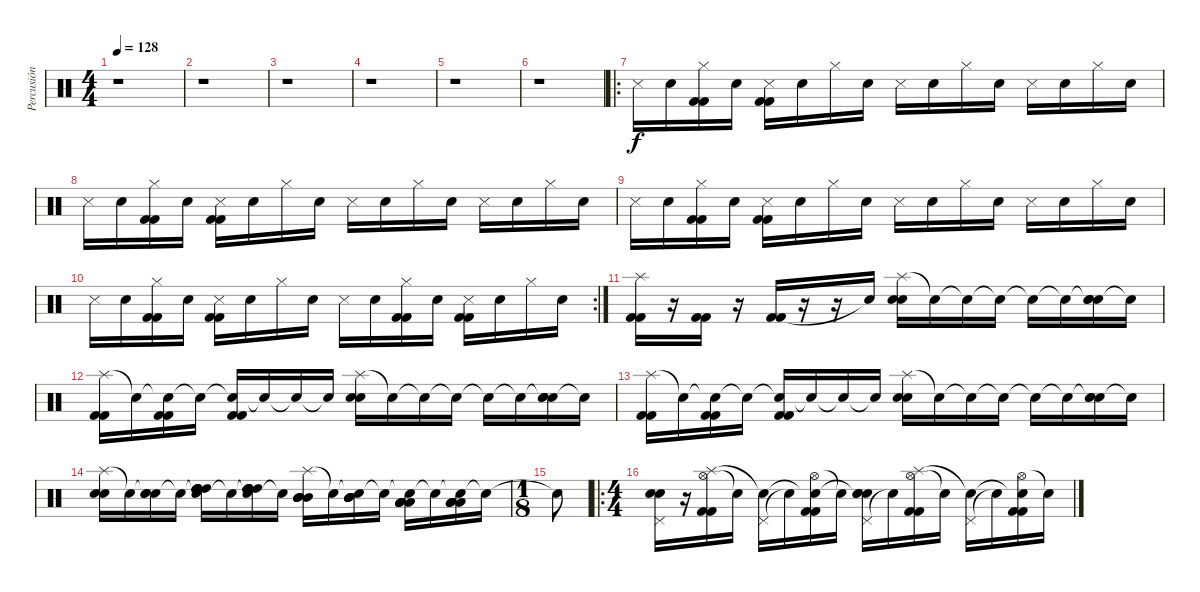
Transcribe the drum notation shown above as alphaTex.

\track ("Percusión" "Percusión") {instrument percussion}
\staff {score}
\articulation defaults
\ts (4 4)
\tempo 128
\clef neutral
\ks c
r.1{dy f} |
r.1 |
r.1 |
r.1 |
r.1 |
r.1 |
\ro "Snare (side stick) 3".16 "Snare (hit)".16
("Hi-Hat (closed)" "Kick (hit) 2" "Kick (hit) 2").16 "Snare (hit)".16 ("Snare (side stick) 3" "Kick (hit) 2" "Kick (hit) 2").16 "Snare (hit)".16 "Hi-Hat (closed)".16 "Snare (hit)".16 "Snare (side stick) 3".16 "Snare (hit)".16 "Hi-Hat (closed)".16 "Snare (hit)".16 "Snare (side stick) 3".16 "Snare (hit)".16 "Hi-Hat (closed)".16 "Snare (hit)".16 |
"Snare (side stick) 3".16 "Snare (hit)".16 ("Hi-Hat (closed)" "Kick (hit) 2" "Kick (hit) 2").16 "Snare (hit)".16 ("Snare (side stick) 3" "Kick (hit) 2" "Kick (hit) 2").16 "Snare (hit)".16 "Hi-Hat (closed)".16 "Snare (hit)".16 "Snare (side stick) 3".16 "Snare (hit)".16 "Hi-Hat (closed)".16 "Snare (hit)".16 "Snare (side stick) 3".16 "Snare (hit)".16 "Hi-Hat (closed)".16 "Snare (hit)".16 |
"Snare (side stick) 3".16 "Snare (hit)".16 ("Hi-Hat (closed)" "Kick (hit) 2" "Kick (hit) 2").16 "Snare (hit)".16 ("Snare (side stick) 3" "Kick (hit) 2" "Kick (hit) 2").16 "Snare (hit)".16 "Hi-Hat (closed)".16 "Snare (hit)".16 "Snare (side stick) 3".16 "Snare (hit)".16 "Hi-Hat (closed)".16 "Snare (hit)".16 "Snare (side stick) 3".16 "Snare (hit)".16 "Hi-Hat (closed)".16 "Snare (hit)".16 |
\rc 2 "Snare (side stick) 3".16 "Snare (hit)".16
("Hi-Hat (closed)" "Kick (hit) 2" "Kick (hit) 2").16 "Snare (hit)".16 ("Snare (side stick) 3" "Kick (hit) 2" "Kick (hit) 2").16 "Snare (hit)".16 "Hi-Hat (closed)".16 "Snare (hit)".16 "Snare (side stick) 3".16 "Snare (hit)".16 ("Hi-Hat (closed)" "Kick (hit) 2" "Kick (hit) 2").16 "Snare (hit)".16 ("Snare (side stick) 3" "Kick (hit) 2" "Kick (hit) 2").16 "Snare (hit)".16 "Hi-Hat (closed)".16 "Snare (hit)".16 |
("Splash (hit)" "Kick (hit) 2" "Kick (hit) 2").16 r.16 ("Kick (hit) 2" "Kick (hit) 2").16 r.16 ("Kick (hit) 2" "Kick (hit) 2").16 r.16 r.16 "Snare (hit)"{t}.16 ("Splash (hit)" "Electric Snare (hit)" "Electric Snare (hit)").16 "Snare (hit)"{t}.16 "Snare (hit)"{t}.16 "Snare (hit)"{t}.16 "Snare (hit)"{t}.16 "Snare (hit)"{t}.16 ("Snare (hit)"{t} "Electric Snare (hit)" "Electric Snare (hit)").16 "Snare (hit)"{t}.16 |
("Splash (hit)" "Kick (hit) 2" "Kick (hit) 2").16 "Snare (hit)"{t}.16 ("Snare (hit)"{t} "Kick (hit) 2" "Kick (hit) 2").16 "Snare (hit)"{t}.16 ("Snare (hit)"{t} "Kick (hit) 2" "Kick (hit) 2").16 "Snare (hit)"{t}.16 "Snare (hit)"{t}.16 "Snare (hit)"{t}.16 ("Splash (hit)" "Electric Snare (hit)" "Electric Snare (hit)").16 "Snare (hit)"{t}.16 "Snare (hit)"{t}.16 "Snare (hit)"{t}.16 "Snare (hit)"{t}.16 "Snare (hit)"{t}.16 ("Snare (hit)"{t} "Electric Snare (hit)" "Electric Snare (hit)").16 "Snare (hit)"{t}.16 |
("Splash (hit)" "Kick (hit) 2" "Kick (hit) 2").16 "Snare (hit)"{t}.16 ("Snare (hit)"{t} "Kick (hit) 2" "Kick (hit) 2").16 "Snare (hit)"{t}.16 ("Snare (hit)"{t} "Kick (hit) 2" "Kick (hit) 2").16 "Snare (hit)"{t}.16 "Snare (hit)"{t}.16 "Snare (hit)"{t}.16 ("Splash (hit)" "Electric Snare (hit)" "Electric Snare (hit)").16 "Snare (hit)"{t}.16 "Snare (hit)"{t}.16 "Snare (hit)"{t}.16 "Snare (hit)"{t}.16 "Snare (hit)"{t}.16 ("Snare (hit)"{t} "Electric Snare (hit)" "Electric Snare (hit)").16 "Snare (hit)"{t}.16 |
("Splash (hit)" "Electric Snare (hit)" "Electric Snare (hit)").16 "Snare (hit)"{t}.16 ("Snare (hit)"{t} "Electric Snare (hit)" "Electric Snare (hit)").16 "Snare (hit)"{t}.16 ("Snare (hit)"{t} "High Tom (hit)" "High Tom (hit)" "High Tom (hit)" "High Tom (hit)").16 "Snare (hit)"{t}.16 ("Snare (hit)"{t} "High Tom (hit)" "High Tom (hit)" "High Tom (hit)" "High Tom (hit)").16 "Snare (hit)"{t}.16 ("Splash (hit)" "Mid Tom (hit)" "Mid Tom (hit)" "Mid Tom (hit)" "Mid Tom (hit)").16 "Snare (hit)"{t}.16 ("Snare (hit)"{t} "Mid Tom (hit)" "Mid Tom (hit)" "Mid Tom (hit)" "Mid Tom (hit)").16 "Snare (hit)"{t}.16 ("Snare (hit)"{t} "Low Tom (hit)" "Low Tom (hit)" "Low Tom (hit)" "Low Tom (hit)").16 "Snare (hit)"{t}.16 ("Snare (hit)"{t} "Low Tom (hit)" "Low Tom (hit)" "Low Tom (hit)" "Low Tom (hit)").16 "Snare (hit)"{t}.16 |
\ts (1 8)
"Snare (hit)"{t}.8 |
\ro
\ts (4 4)
("Pedal Hi-Hat (hit)" "Electric Snare (hit)" "Electric Snare (hit)").16 r.16 ("Hi-Hat (open)" "Splash (hit)" "Kick (hit) 2" "Kick (hit) 2").16 "Snare (hit)"{t}.16 ("Pedal Hi-Hat (hit)" "Snare (hit)"{t}).16 "Snare (hit)"{t}.16 ("Hi-Hat (open)" "Snare (hit)"{t} "Kick (hit) 2" "Kick (hit) 2").16 "Snare (hit)"{t}.16 ("Pedal Hi-Hat (hit)" "Snare (hit)"{t} "Electric Snare (hit)" "Electric Snare (hit)").16 "Snare (hit)"{t}.16 ("Hi-Hat (open)" "Splash (hit)" "Kick (hit) 2" "Kick (hit) 2").16 "Snare (hit)"{t}.16 ("Pedal Hi-Hat (hit)" "Snare (hit)"{t}).16 "Snare (hit)"{t}.16 ("Hi-Hat (open)" "Snare (hit)"{t} "Kick (hit) 2" "Kick (hit) 2").16 "Snare (hit)"{t}.16
